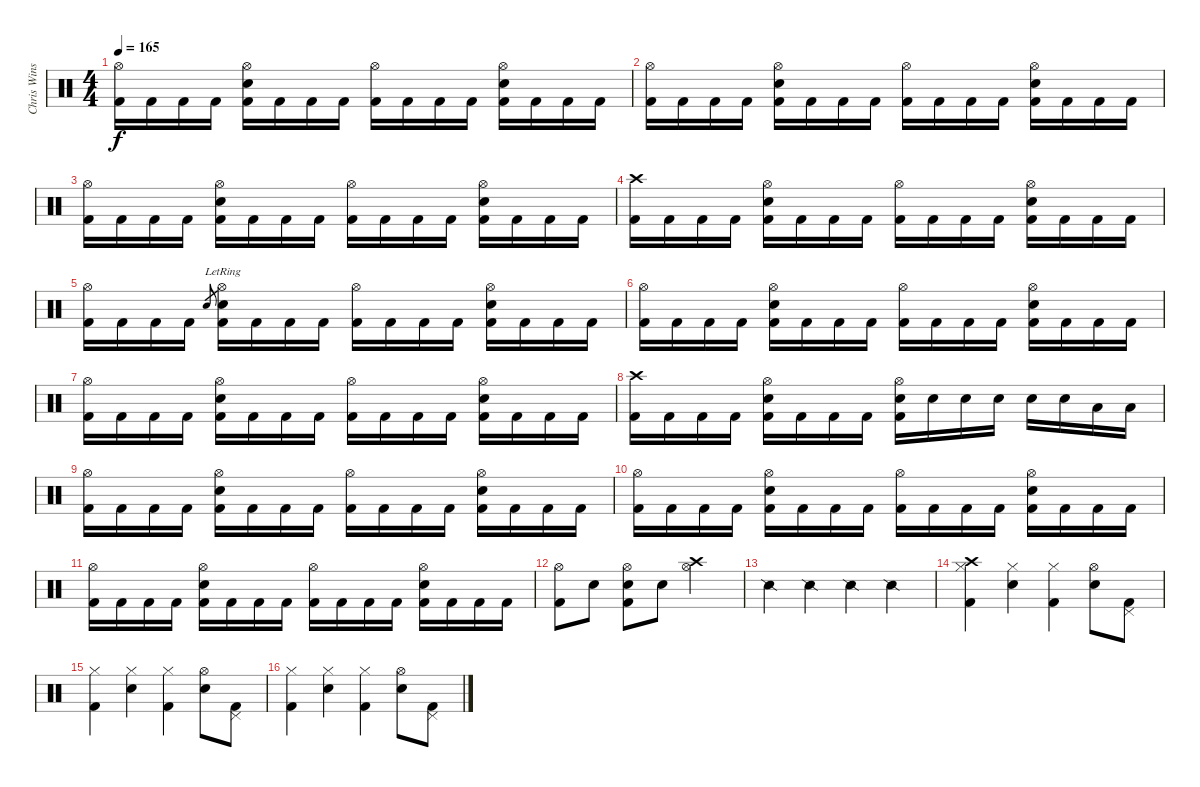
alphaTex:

\track ("Chris Winship (Bass)" "Chris Wins") {instrument percussion}
\staff {score}
\articulation defaults
\ts (4 4)
\tempo 165
\clef neutral
\ks c
("Hi-Hat (open)" "Kick (hit) 2").16{dy f} "Kick (hit) 2".16 "Kick (hit) 2".16 "Kick (hit) 2".16 ("Hi-Hat (open)" "Snare (hit) 2" "Kick (hit) 2").16 "Kick (hit) 2".16 "Kick (hit) 2".16 "Kick (hit) 2".16 ("Hi-Hat (open)" "Kick (hit) 2").16 "Kick (hit) 2".16 "Kick (hit) 2".16 "Kick (hit) 2".16 ("Hi-Hat (open)" "Snare (hit) 2" "Kick (hit) 2").16 "Kick (hit) 2".16 "Kick (hit) 2".16 "Kick (hit) 2".16 |
("Hi-Hat (open)" "Kick (hit) 2").16 "Kick (hit) 2".16 "Kick (hit) 2".16 "Kick (hit) 2".16 ("Hi-Hat (open)" "Snare (hit) 2" "Kick (hit) 2").16 "Kick (hit) 2".16 "Kick (hit) 2".16 "Kick (hit) 2".16 ("Hi-Hat (open)" "Kick (hit) 2").16 "Kick (hit) 2".16 "Kick (hit) 2".16 "Kick (hit) 2".16 ("Hi-Hat (open)" "Snare (hit) 2" "Kick (hit) 2").16 "Kick (hit) 2".16 "Kick (hit) 2".16 "Kick (hit) 2".16 |
("Hi-Hat (open)" "Kick (hit) 2").16 "Kick (hit) 2".16 "Kick (hit) 2".16 "Kick (hit) 2".16 ("Hi-Hat (open)" "Snare (hit) 2" "Kick (hit) 2").16 "Kick (hit) 2".16 "Kick (hit) 2".16 "Kick (hit) 2".16 ("Hi-Hat (open)" "Kick (hit) 2").16 "Kick (hit) 2".16 "Kick (hit) 2".16 "Kick (hit) 2".16 ("Hi-Hat (open)" "Snare (hit) 2" "Kick (hit) 2").16 "Kick (hit) 2".16 "Kick (hit) 2".16 "Kick (hit) 2".16 |
("Crash high (hit)" "Kick (hit) 2").16 "Kick (hit) 2".16 "Kick (hit) 2".16 "Kick (hit) 2".16 ("Hi-Hat (open)" "Snare (hit) 2" "Kick (hit) 2").16 "Kick (hit) 2".16 "Kick (hit) 2".16 "Kick (hit) 2".16 ("Hi-Hat (open)" "Kick (hit) 2").16 "Kick (hit) 2".16 "Kick (hit) 2".16 "Kick (hit) 2".16 ("Hi-Hat (open)" "Snare (hit) 2" "Kick (hit) 2").16 "Kick (hit) 2".16 "Kick (hit) 2".16 "Kick (hit) 2".16 |
("Hi-Hat (open)" "Kick (hit) 2").16 "Kick (hit) 2".16 "Kick (hit) 2".16 "Kick (hit) 2".16 "Electric Snare (hit)".8{gr} ("Hi-Hat (open)" "Snare (hit) 2"{lr} "Kick (hit) 2").16 "Kick (hit) 2".16 "Kick (hit) 2".16 "Kick (hit) 2".16 ("Hi-Hat (open)" "Kick (hit) 2").16 "Kick (hit) 2".16 "Kick (hit) 2".16 "Kick (hit) 2".16 ("Hi-Hat (open)" "Snare (hit) 2" "Kick (hit) 2").16 "Kick (hit) 2".16 "Kick (hit) 2".16 "Kick (hit) 2".16 |
("Hi-Hat (open)" "Kick (hit) 2").16 "Kick (hit) 2".16 "Kick (hit) 2".16 "Kick (hit) 2".16 ("Hi-Hat (open)" "Snare (hit) 2" "Kick (hit) 2").16 "Kick (hit) 2".16 "Kick (hit) 2".16 "Kick (hit) 2".16 ("Hi-Hat (open)" "Kick (hit) 2").16 "Kick (hit) 2".16 "Kick (hit) 2".16 "Kick (hit) 2".16 ("Hi-Hat (open)" "Snare (hit) 2" "Kick (hit) 2").16 "Kick (hit) 2".16 "Kick (hit) 2".16 "Kick (hit) 2".16 |
("Hi-Hat (open)" "Kick (hit) 2").16 "Kick (hit) 2".16 "Kick (hit) 2".16 "Kick (hit) 2".16 ("Hi-Hat (open)" "Snare (hit) 2" "Kick (hit) 2").16 "Kick (hit) 2".16 "Kick (hit) 2".16 "Kick (hit) 2".16 ("Hi-Hat (open)" "Kick (hit) 2").16 "Kick (hit) 2".16 "Kick (hit) 2".16 "Kick (hit) 2".16 ("Hi-Hat (open)" "Snare (hit) 2" "Kick (hit) 2").16 "Kick (hit) 2".16 "Kick (hit) 2".16 "Kick (hit) 2".16 |
("Crash high (hit)" "Kick (hit) 2").16 "Kick (hit) 2".16 "Kick (hit) 2".16 "Kick (hit) 2".16 ("Hi-Hat (open)" "Snare (hit) 2" "Kick (hit) 2").16 "Kick (hit) 2".16 "Kick (hit) 2".16 "Kick (hit) 2".16 ("Hi-Hat (open)" "Snare (hit) 2" "Kick (hit) 2").16 "Snare (hit) 2".16 "Snare (hit) 2".16 "Snare (hit) 2".16 "Snare (hit) 2".16 "Snare (hit) 2".16 "Low Floor Tom (hit)".16 "Low Floor Tom (hit)".16 |
("Hi-Hat (open)" "Kick (hit) 2").16 "Kick (hit) 2".16 "Kick (hit) 2".16 "Kick (hit) 2".16 ("Hi-Hat (open)" "Snare (hit) 2" "Kick (hit) 2").16 "Kick (hit) 2".16 "Kick (hit) 2".16 "Kick (hit) 2".16 ("Hi-Hat (open)" "Kick (hit) 2").16 "Kick (hit) 2".16 "Kick (hit) 2".16 "Kick (hit) 2".16 ("Hi-Hat (open)" "Snare (hit) 2" "Kick (hit) 2").16 "Kick (hit) 2".16 "Kick (hit) 2".16 "Kick (hit) 2".16 |
("Hi-Hat (open)" "Kick (hit) 2").16 "Kick (hit) 2".16 "Kick (hit) 2".16 "Kick (hit) 2".16 ("Hi-Hat (open)" "Snare (hit) 2" "Kick (hit) 2").16 "Kick (hit) 2".16 "Kick (hit) 2".16 "Kick (hit) 2".16 ("Hi-Hat (open)" "Kick (hit) 2").16 "Kick (hit) 2".16 "Kick (hit) 2".16 "Kick (hit) 2".16 ("Hi-Hat (open)" "Snare (hit) 2" "Kick (hit) 2").16 "Kick (hit) 2".16 "Kick (hit) 2".16 "Kick (hit) 2".16 |
("Hi-Hat (open)" "Kick (hit) 2").16 "Kick (hit) 2".16 "Kick (hit) 2".16 "Kick (hit) 2".16 ("Hi-Hat (open)" "Snare (hit) 2" "Kick (hit) 2").16 "Kick (hit) 2".16 "Kick (hit) 2".16 "Kick (hit) 2".16 ("Hi-Hat (open)" "Kick (hit) 2").16 "Kick (hit) 2".16 "Kick (hit) 2".16 "Kick (hit) 2".16 ("Hi-Hat (open)" "Snare (hit) 2" "Kick (hit) 2").16 "Kick (hit) 2".16 "Kick (hit) 2".16 "Kick (hit) 2".16 |
("Hi-Hat (open)" "Kick (hit) 2").8 "Snare (hit) 2".8 ("Hi-Hat (open)" "Snare (hit) 2" "Kick (hit) 2").8 "Snare (hit) 2".8 ("Hi-Hat (open)" "Crash high (hit)").2 |
"Snare (side stick) 2".4 "Snare (side stick) 2".4 "Snare (side stick) 2".4 "Snare (side stick) 2".4 |
("Crash high (hit)" "Hi-Hat (closed)" "Kick (hit) 2").4 ("Hi-Hat (closed)" "Snare (hit) 2").4 ("Hi-Hat (closed)" "Kick (hit) 2").4 ("Hi-Hat (open)" "Snare (hit) 2").8 ("Pedal Hi-Hat (hit)" "Kick (hit) 2").8 |
("Hi-Hat (closed)" "Kick (hit) 2").4 ("Hi-Hat (closed)" "Snare (hit) 2").4 ("Hi-Hat (closed)" "Kick (hit) 2").4 ("Hi-Hat (open)" "Snare (hit) 2").8 ("Pedal Hi-Hat (hit)" "Kick (hit) 2").8 |
("Hi-Hat (closed)" "Kick (hit) 2").4 ("Hi-Hat (closed)" "Snare (hit) 2").4 ("Hi-Hat (closed)" "Kick (hit) 2").4 ("Hi-Hat (open)" "Snare (hit) 2").8 ("Pedal Hi-Hat (hit)" "Kick (hit) 2").8
